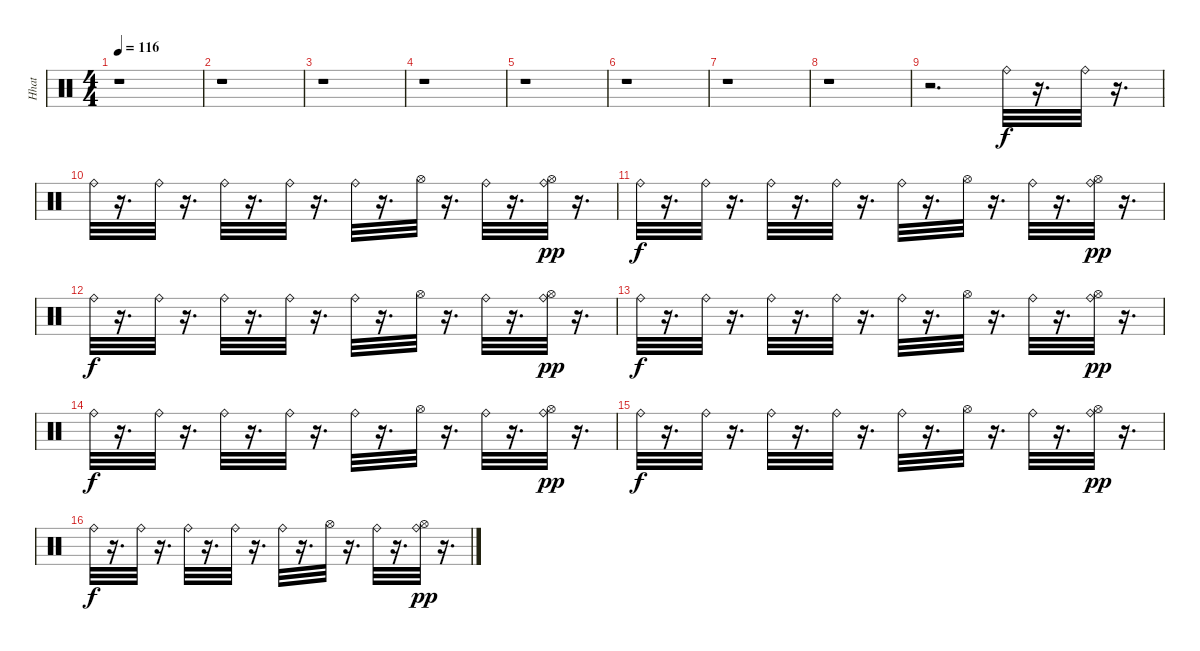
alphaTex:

\track ("Hhat" "Hhat") {instrument percussion}
\staff {score}
\articulation defaults
\ts (4 4)
\tempo 116
\clef neutral
\ks c
r.1{dy f} |
r.1 |
r.1 |
r.1 |
r.1 |
r.1 |
r.1 |
r.1 |
r.2{d} "Ride (bell)".32 r.16{d} "Ride (bell)".32 r.16{d} |
"Ride (bell)".32 r.16{d} "Ride (bell)".32 r.16{d} "Ride (bell)".32 r.16{d} "Ride (bell)".32 r.16{d} "Ride (bell)".32 r.16{d} "Hi-Hat (open)".32 r.16{d} "Ride (bell)".32 r.16{d} ("Ride (bell)" "Hi-Hat (open)").32{dy pp} r.16{d} |
"Ride (bell)".32{dy f} r.16{d} "Ride (bell)".32 r.16{d} "Ride (bell)".32 r.16{d} "Ride (bell)".32 r.16{d} "Ride (bell)".32 r.16{d} "Hi-Hat (open)".32 r.16{d} "Ride (bell)".32 r.16{d} ("Ride (bell)" "Hi-Hat (open)").32{dy pp} r.16{d} |
"Ride (bell)".32{dy f} r.16{d} "Ride (bell)".32 r.16{d} "Ride (bell)".32 r.16{d} "Ride (bell)".32 r.16{d} "Ride (bell)".32 r.16{d} "Hi-Hat (open)".32 r.16{d} "Ride (bell)".32 r.16{d} ("Ride (bell)" "Hi-Hat (open)").32{dy pp} r.16{d} |
"Ride (bell)".32{dy f} r.16{d} "Ride (bell)".32 r.16{d} "Ride (bell)".32 r.16{d} "Ride (bell)".32 r.16{d} "Ride (bell)".32 r.16{d} "Hi-Hat (open)".32 r.16{d} "Ride (bell)".32 r.16{d} ("Ride (bell)" "Hi-Hat (open)").32{dy pp} r.16{d} |
"Ride (bell)".32{dy f} r.16{d} "Ride (bell)".32 r.16{d} "Ride (bell)".32 r.16{d} "Ride (bell)".32 r.16{d} "Ride (bell)".32 r.16{d} "Hi-Hat (open)".32 r.16{d} "Ride (bell)".32 r.16{d} ("Ride (bell)" "Hi-Hat (open)").32{dy pp} r.16{d} |
"Ride (bell)".32{dy f} r.16{d} "Ride (bell)".32 r.16{d} "Ride (bell)".32 r.16{d} "Ride (bell)".32 r.16{d} "Ride (bell)".32 r.16{d} "Hi-Hat (open)".32 r.16{d} "Ride (bell)".32 r.16{d} ("Ride (bell)" "Hi-Hat (open)").32{dy pp} r.16{d} |
"Ride (bell)".32{dy f} r.16{d} "Ride (bell)".32 r.16{d} "Ride (bell)".32 r.16{d} "Ride (bell)".32 r.16{d} "Ride (bell)".32 r.16{d} "Hi-Hat (open)".32 r.16{d} "Ride (bell)".32 r.16{d} ("Ride (bell)" "Hi-Hat (open)").32{dy pp} r.16{d}
